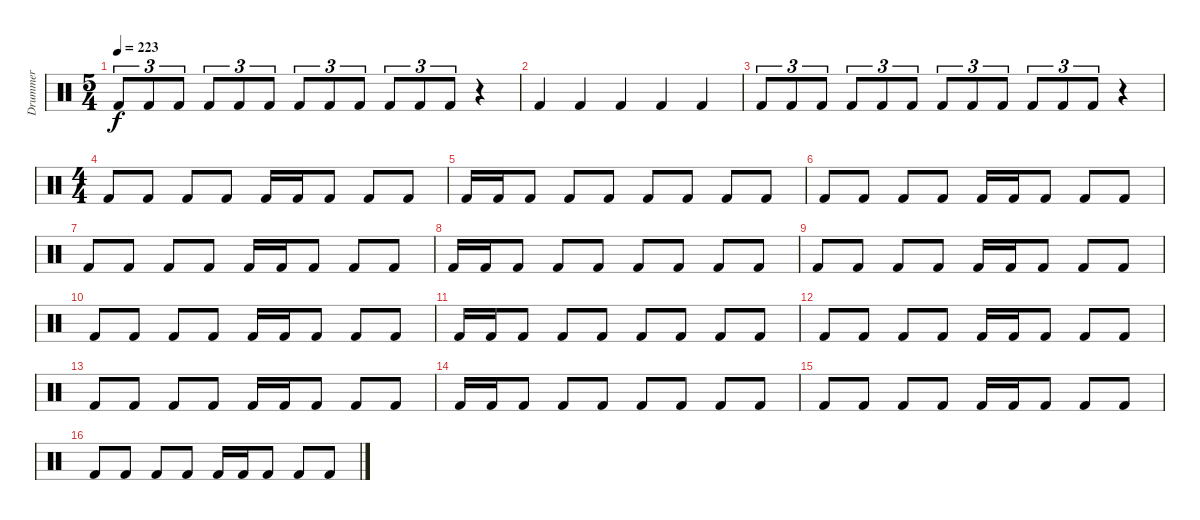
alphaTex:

\track ("Drummer" "Drummer") {instrument percussion}
\staff {score}
\articulation defaults
\ts (5 4)
\tempo 223
\clef neutral
\ks c "Kick (hit) 2".8{tu (3 2) dy f} "Kick (hit) 2".8{tu (3 2)} "Kick (hit) 2".8{tu (3 2)} "Kick (hit) 2".8{tu (3 2)} "Kick (hit) 2".8{tu (3 2)} "Kick (hit) 2".8{tu (3 2)} "Kick (hit) 2".8{tu (3 2)} "Kick (hit) 2".8{tu (3 2)} "Kick (hit) 2".8{tu (3 2)} "Kick (hit) 2".8{tu (3 2)} "Kick (hit) 2".8{tu (3 2)} "Kick (hit) 2".8{tu (3 2)}
r.4 |
"Kick (hit) 2".4 "Kick (hit) 2".4 "Kick (hit) 2".4 "Kick (hit) 2".4 "Kick (hit) 2".4 |
"Kick (hit) 2".8{tu (3 2)} "Kick (hit) 2".8{tu (3 2)} "Kick (hit) 2".8{tu (3 2)} "Kick (hit) 2".8{tu (3 2)} "Kick (hit) 2".8{tu (3 2)} "Kick (hit) 2".8{tu (3 2)} "Kick (hit) 2".8{tu (3 2)} "Kick (hit) 2".8{tu (3 2)} "Kick (hit) 2".8{tu (3 2)} "Kick (hit) 2".8{tu (3 2)} "Kick (hit) 2".8{tu (3 2)} "Kick (hit) 2".8{tu (3 2)} r.4 |
\ts (4 4)
"Kick (hit) 2".8 "Kick (hit) 2".8 "Kick (hit) 2".8 "Kick (hit) 2".8 "Kick (hit) 2".16 "Kick (hit) 2".16 "Kick (hit) 2".8 "Kick (hit) 2".8 "Kick (hit) 2".8 |
"Kick (hit) 2".16 "Kick (hit) 2".16 "Kick (hit) 2".8 "Kick (hit) 2".8 "Kick (hit) 2".8 "Kick (hit) 2".8 "Kick (hit) 2".8 "Kick (hit) 2".8 "Kick (hit) 2".8 |
"Kick (hit) 2".8 "Kick (hit) 2".8 "Kick (hit) 2".8 "Kick (hit) 2".8 "Kick (hit) 2".16 "Kick (hit) 2".16 "Kick (hit) 2".8 "Kick (hit) 2".8 "Kick (hit) 2".8 |
"Kick (hit) 2".8 "Kick (hit) 2".8 "Kick (hit) 2".8 "Kick (hit) 2".8 "Kick (hit) 2".16 "Kick (hit) 2".16 "Kick (hit) 2".8 "Kick (hit) 2".8 "Kick (hit) 2".8 |
"Kick (hit) 2".16 "Kick (hit) 2".16 "Kick (hit) 2".8 "Kick (hit) 2".8 "Kick (hit) 2".8 "Kick (hit) 2".8 "Kick (hit) 2".8 "Kick (hit) 2".8 "Kick (hit) 2".8 |
"Kick (hit) 2".8 "Kick (hit) 2".8 "Kick (hit) 2".8 "Kick (hit) 2".8 "Kick (hit) 2".16 "Kick (hit) 2".16 "Kick (hit) 2".8 "Kick (hit) 2".8 "Kick (hit) 2".8 |
"Kick (hit) 2".8 "Kick (hit) 2".8 "Kick (hit) 2".8 "Kick (hit) 2".8 "Kick (hit) 2".16 "Kick (hit) 2".16 "Kick (hit) 2".8 "Kick (hit) 2".8 "Kick (hit) 2".8 |
"Kick (hit) 2".16 "Kick (hit) 2".16 "Kick (hit) 2".8 "Kick (hit) 2".8 "Kick (hit) 2".8 "Kick (hit) 2".8 "Kick (hit) 2".8 "Kick (hit) 2".8 "Kick (hit) 2".8 |
"Kick (hit) 2".8 "Kick (hit) 2".8 "Kick (hit) 2".8 "Kick (hit) 2".8 "Kick (hit) 2".16 "Kick (hit) 2".16 "Kick (hit) 2".8 "Kick (hit) 2".8 "Kick (hit) 2".8 |
"Kick (hit) 2".8 "Kick (hit) 2".8 "Kick (hit) 2".8 "Kick (hit) 2".8 "Kick (hit) 2".16 "Kick (hit) 2".16 "Kick (hit) 2".8 "Kick (hit) 2".8 "Kick (hit) 2".8 |
"Kick (hit) 2".16 "Kick (hit) 2".16 "Kick (hit) 2".8 "Kick (hit) 2".8 "Kick (hit) 2".8 "Kick (hit) 2".8 "Kick (hit) 2".8 "Kick (hit) 2".8 "Kick (hit) 2".8 |
"Kick (hit) 2".8 "Kick (hit) 2".8 "Kick (hit) 2".8 "Kick (hit) 2".8 "Kick (hit) 2".16 "Kick (hit) 2".16 "Kick (hit) 2".8 "Kick (hit) 2".8 "Kick (hit) 2".8 |
"Kick (hit) 2".8 "Kick (hit) 2".8 "Kick (hit) 2".8 "Kick (hit) 2".8 "Kick (hit) 2".16 "Kick (hit) 2".16 "Kick (hit) 2".8 "Kick (hit) 2".8 "Kick (hit) 2".8
